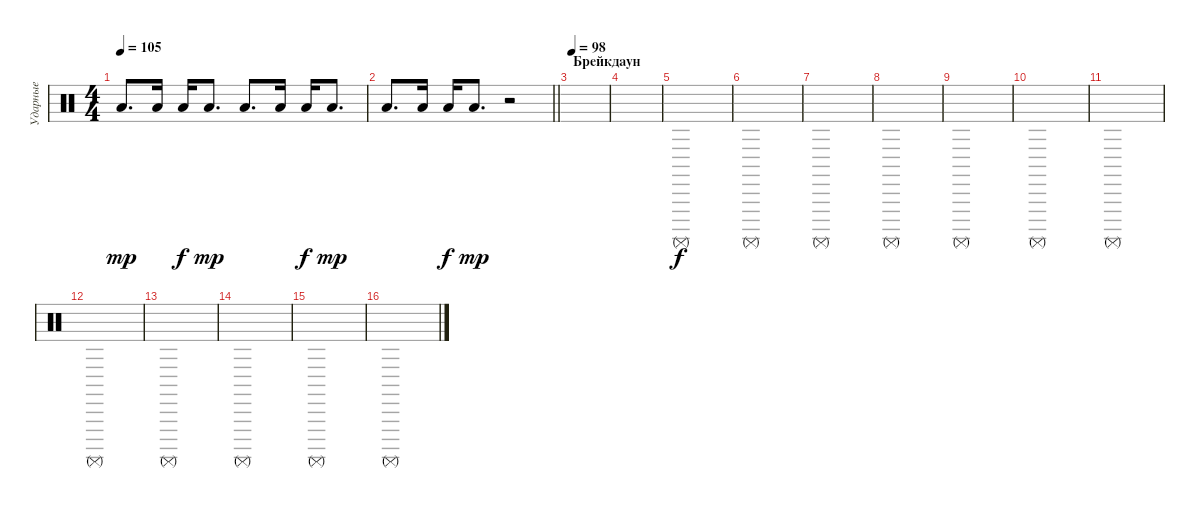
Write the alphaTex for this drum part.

\track ("Ударные" "Ударные") {instrument percussion}
\staff {score}
\articulation defaults
\ts (4 4)
\tempo 105
\clef neutral
\ks c "Low Tom (hit)".8{d dy mp} "Low Tom (hit)".16 "Low Tom (hit)".16{dy f} "Low Tom (hit)".8{d dy mp} "Low Tom (hit)".8{d} "Low Tom (hit)".16 "Low Tom (hit)".16{dy f} "Low Tom (hit)".8{d dy mp}
|
\barLineRight lightlight "Low Tom (hit)".8{d} "Low Tom (hit)".16 "Low Tom (hit)".16{dy f} "Low Tom (hit)".8{d dy mp}
r.2 |
\section ("" "Брейкдаун")
\tempo 98
|
|
"Surdo (mute)".1{dy f} |
"Surdo (mute)".1 |
"Surdo (mute)".1 |
"Surdo (mute)".1 |
"Surdo (mute)".1 |
"Surdo (mute)".1 |
"Surdo (mute)".1 |
"Surdo (mute)".1 |
"Surdo (mute)".1 |
"Surdo (mute)".1 |
"Surdo (mute)".1 |
"Surdo (mute)".1
